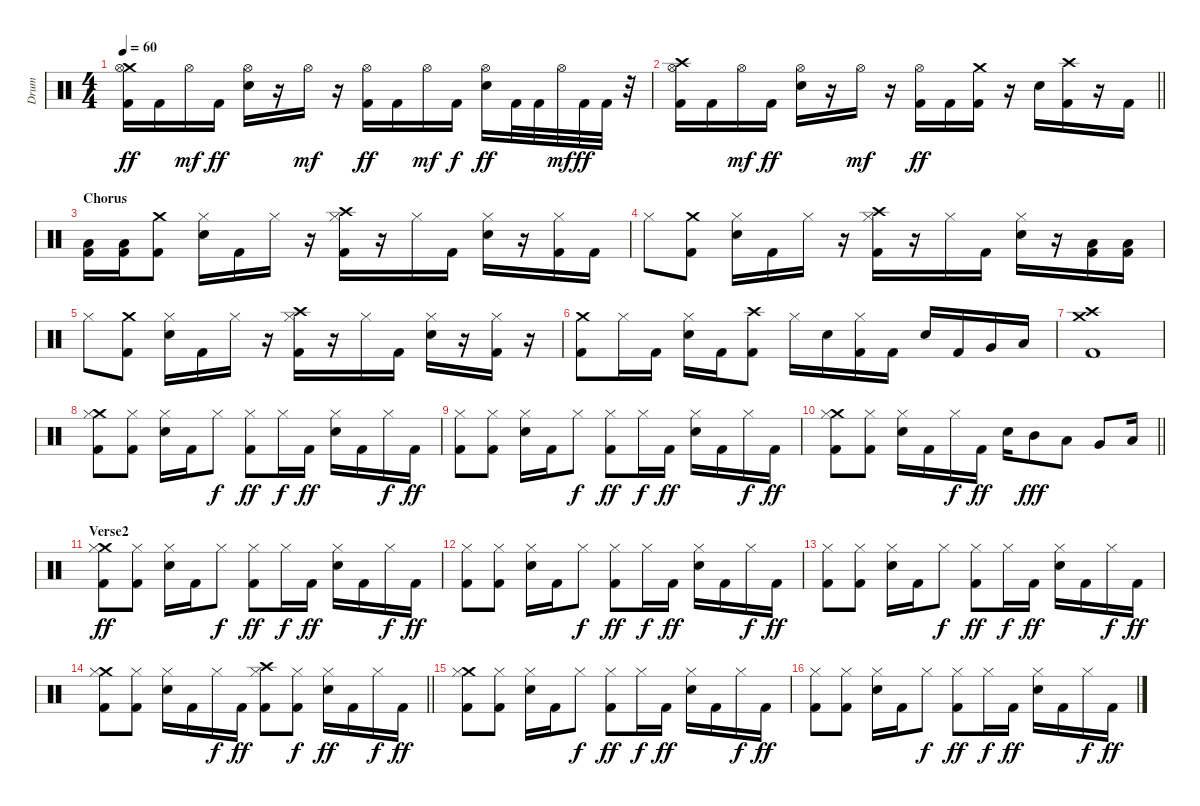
\track ("Drum" "Drum") {instrument percussion}
\staff {score}
\articulation defaults
\ts (4 4)
\tempo 60
\clef neutral
\ks c
("Crash medium (hit)" "Hi-Hat (open)" "Kick (hit) 2").16{dy ff} "Kick (hit) 2".16 "Hi-Hat (open)".16{dy mf} "Kick (hit) 2".16{dy ff} ("Hi-Hat (open)" "Electric Snare (hit)").16 r.16 "Hi-Hat (open)".16{dy mf} r.16 ("Hi-Hat (open)" "Kick (hit) 2").16{dy ff} "Kick (hit) 2".16 "Hi-Hat (open)".16{dy mf} "Kick (hit) 2".16{dy f} ("Hi-Hat (open)" "Electric Snare (hit)").16{dy ff} "Kick (hit) 2".32 "Kick (hit) 2".32 "Hi-Hat (open)".32{dy mf} "Kick (hit) 2".32{dy ff} "Kick (hit) 2".32 r.32 |
\barLineRight lightlight
("Crash high (hit)" "Hi-Hat (open)" "Kick (hit) 2").16 "Kick (hit) 2".16 "Hi-Hat (open)".16{dy mf} "Kick (hit) 2".16{dy ff} ("Hi-Hat (open)" "Electric Snare (hit)").16 r.16 "Hi-Hat (open)".16{dy mf} r.16 ("Hi-Hat (open)" "Kick (hit) 2").16{dy ff} "Kick (hit) 2".16 ("Crash medium (hit)" "Kick (hit) 2").16 r.16 "Electric Snare (hit)".16 ("Crash high (hit)" "Kick (hit) 2").16 r.16 "Kick (hit) 2".16 |
\section ("" "Chorus")
("Low Floor Tom (hit)" "Kick (hit) 2").16 ("Low Floor Tom (hit)" "Kick (hit) 2").16 ("Crash medium (hit)" "Kick (hit) 2").8 ("Hi-Hat (closed)" "Electric Snare (hit)").16 "Kick (hit) 2".16 "Hi-Hat (closed)".16 r.16 ("Crash high (hit)" "Hi-Hat (closed)" "Kick (hit) 2").16 r.16 "Hi-Hat (closed)".16 "Kick (hit) 2".16 ("Hi-Hat (closed)" "Electric Snare (hit)").16 r.16 ("Hi-Hat (closed)" "Kick (hit) 2").16 "Kick (hit) 2".16 |
"Hi-Hat (closed)".8 ("Crash medium (hit)" "Kick (hit) 2").8 ("Hi-Hat (closed)" "Electric Snare (hit)").16 "Kick (hit) 2".16 "Hi-Hat (closed)".16 r.16 ("Crash high (hit)" "Hi-Hat (closed)" "Kick (hit) 2").16 r.16 "Hi-Hat (closed)".16 "Kick (hit) 2".16 ("Hi-Hat (closed)" "Electric Snare (hit)").16 r.16 ("Low Floor Tom (hit)" "Kick (hit) 2").16 ("Low Floor Tom (hit)" "Kick (hit) 2").16 |
"Hi-Hat (closed)".8 ("Crash medium (hit)" "Kick (hit) 2").8 ("Hi-Hat (closed)" "Electric Snare (hit)").16 "Kick (hit) 2".16 "Hi-Hat (closed)".16 r.16 ("Crash high (hit)" "Hi-Hat (closed)" "Kick (hit) 2").16 r.16 "Hi-Hat (closed)".16 "Kick (hit) 2".16 ("Hi-Hat (closed)" "Electric Snare (hit)").16 r.16 ("Hi-Hat (closed)" "Kick (hit) 2").16 r.16 |
("Crash medium (hit)" "Kick (hit) 2").8 "Hi-Hat (closed)".16 "Kick (hit) 2".16 ("Hi-Hat (closed)" "Electric Snare (hit)").16 "Kick (hit) 2".16 ("Crash high (hit)" "Kick (hit) 2").8 "Hi-Hat (closed)".16 "Electric Snare (hit)".16 ("Hi-Hat (closed)" "Kick (hit) 2").16 "Kick (hit) 2".16 "Electric Snare (hit)".16 "Kick (hit) 2".16 "Very Low Tom (hit)".16 "Low Floor Tom (hit)".16 |
("Crash medium (hit)" "Crash high (hit)" "Kick (hit) 2").1 |
("Crash medium (hit)" "Hi-Hat (closed)" "Kick (hit) 2").8 ("Hi-Hat (closed)" "Kick (hit) 2").8 ("Hi-Hat (closed)" "Electric Snare (hit)").16 "Kick (hit) 2".16 "Hi-Hat (closed)".8{dy f} ("Hi-Hat (closed)" "Kick (hit) 2").8{dy ff} "Hi-Hat (closed)".16{dy f} "Kick (hit) 2".16{dy ff} ("Hi-Hat (closed)" "Electric Snare (hit)").16 "Kick (hit) 2".16 "Hi-Hat (closed)".16{dy f} "Kick (hit) 2".16{dy ff} |
("Hi-Hat (closed)" "Kick (hit) 2").8 ("Hi-Hat (closed)" "Kick (hit) 2").8 ("Hi-Hat (closed)" "Electric Snare (hit)").16 "Kick (hit) 2".16 "Hi-Hat (closed)".8{dy f} ("Hi-Hat (closed)" "Kick (hit) 2").8{dy ff} "Hi-Hat (closed)".16{dy f} "Kick (hit) 2".16{dy ff} ("Hi-Hat (closed)" "Electric Snare (hit)").16 "Kick (hit) 2".16 "Hi-Hat (closed)".16{dy f} "Kick (hit) 2".16{dy ff} |
\barLineRight lightlight
("Crash medium (hit)" "Hi-Hat (closed)" "Kick (hit) 2").8 ("Hi-Hat (closed)" "Kick (hit) 2").8 ("Hi-Hat (closed)" "Electric Snare (hit)").16 "Kick (hit) 2".16 "Hi-Hat (closed)".16{dy f} "Kick (hit) 2".16{dy ff} "Electric Snare (hit)".16 "Mid Tom (hit)".8{dy fff} "Low Tom (hit)".8 "Very Low Tom (hit)".8 "Low Floor Tom (hit)".16 |
\section ("" "Verse2")
("Crash medium (hit)" "Hi-Hat (closed)" "Kick (hit) 2").8{dy ff} ("Hi-Hat (closed)" "Kick (hit) 2").8 ("Hi-Hat (closed)" "Electric Snare (hit)").16 "Kick (hit) 2".16 "Hi-Hat (closed)".8{dy f} ("Hi-Hat (closed)" "Kick (hit) 2").8{dy ff} "Hi-Hat (closed)".16{dy f} "Kick (hit) 2".16{dy ff} ("Hi-Hat (closed)" "Electric Snare (hit)").16 "Kick (hit) 2".16 "Hi-Hat (closed)".16{dy f} "Kick (hit) 2".16{dy ff} |
("Hi-Hat (closed)" "Kick (hit) 2").8 ("Hi-Hat (closed)" "Kick (hit) 2").8 ("Hi-Hat (closed)" "Electric Snare (hit)").16 "Kick (hit) 2".16 "Hi-Hat (closed)".8{dy f} ("Hi-Hat (closed)" "Kick (hit) 2").8{dy ff} "Hi-Hat (closed)".16{dy f} "Kick (hit) 2".16{dy ff} ("Hi-Hat (closed)" "Electric Snare (hit)").16 "Kick (hit) 2".16 "Hi-Hat (closed)".16{dy f} "Kick (hit) 2".16{dy ff} |
("Hi-Hat (closed)" "Kick (hit) 2").8 ("Hi-Hat (closed)" "Kick (hit) 2").8 ("Hi-Hat (closed)" "Electric Snare (hit)").16 "Kick (hit) 2".16 "Hi-Hat (closed)".8{dy f} ("Hi-Hat (closed)" "Kick (hit) 2").8{dy ff} "Hi-Hat (closed)".16{dy f} "Kick (hit) 2".16{dy ff} ("Hi-Hat (closed)" "Electric Snare (hit)").16 "Kick (hit) 2".16 "Hi-Hat (closed)".16{dy f} "Kick (hit) 2".16{dy ff} |
\barLineRight lightlight
("Crash medium (hit)" "Hi-Hat (closed)" "Kick (hit) 2").8 ("Hi-Hat (closed)" "Kick (hit) 2").8 ("Hi-Hat (closed)" "Electric Snare (hit)").16 "Kick (hit) 2".16 "Hi-Hat (closed)".16{dy f} "Kick (hit) 2".16{dy ff} ("Crash high (hit)" "Hi-Hat (closed)" "Kick (hit) 2").8 ("Hi-Hat (closed)" "Kick (hit) 2").8{dy f} ("Hi-Hat (closed)" "Electric Snare (hit)").16{dy ff} "Kick (hit) 2".16 "Hi-Hat (closed)".16{dy f} "Kick (hit) 2".16{dy ff} |
("Crash medium (hit)" "Hi-Hat (closed)" "Kick (hit) 2").8 ("Hi-Hat (closed)" "Kick (hit) 2").8 ("Hi-Hat (closed)" "Electric Snare (hit)").16 "Kick (hit) 2".16 "Hi-Hat (closed)".8{dy f} ("Hi-Hat (closed)" "Kick (hit) 2").8{dy ff} "Hi-Hat (closed)".16{dy f} "Kick (hit) 2".16{dy ff} ("Hi-Hat (closed)" "Electric Snare (hit)").16 "Kick (hit) 2".16 "Hi-Hat (closed)".16{dy f} "Kick (hit) 2".16{dy ff} |
("Hi-Hat (closed)" "Kick (hit) 2").8 ("Hi-Hat (closed)" "Kick (hit) 2").8 ("Hi-Hat (closed)" "Electric Snare (hit)").16 "Kick (hit) 2".16 "Hi-Hat (closed)".8{dy f} ("Hi-Hat (closed)" "Kick (hit) 2").8{dy ff} "Hi-Hat (closed)".16{dy f} "Kick (hit) 2".16{dy ff} ("Hi-Hat (closed)" "Electric Snare (hit)").16 "Kick (hit) 2".16 "Hi-Hat (closed)".16{dy f} "Kick (hit) 2".16{dy ff}
